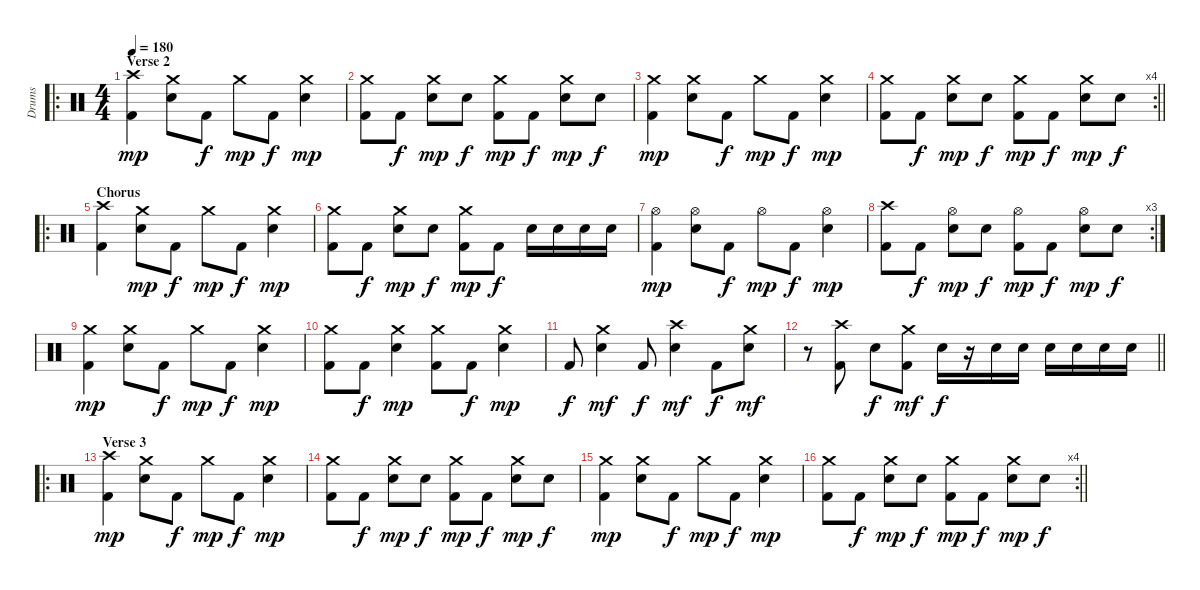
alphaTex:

\track ("Drums" "Drums") {instrument percussion}
\staff {score}
\articulation defaults
\ro
\ts (4 4)
\section ("" "Verse 2")
\tempo 180
\clef neutral
\ks c
("Crash high (hit)" "Kick (hit) 2").4{dy mp} ("Crash medium (hit)" "Snare (hit) 2").8 "Kick (hit) 2".8{dy f} "Crash medium (hit)".8{dy mp} "Kick (hit) 2".8{dy f} ("Crash medium (hit)" "Snare (hit) 2").4{dy mp} |
("Crash medium (hit)" "Kick (hit) 2").8 "Kick (hit) 2".8{dy f} ("Crash medium (hit)" "Snare (hit) 2").8{dy mp} "Snare (hit) 2".8{dy f} ("Crash medium (hit)" "Kick (hit) 2").8{dy mp} "Kick (hit) 2".8{dy f} ("Crash medium (hit)" "Snare (hit) 2").8{dy mp} "Snare (hit) 2".8{dy f} |
("Crash medium (hit)" "Kick (hit) 2").4{dy mp} ("Crash medium (hit)" "Snare (hit) 2").8 "Kick (hit) 2".8{dy f} "Crash medium (hit)".8{dy mp} "Kick (hit) 2".8{dy f} ("Crash medium (hit)" "Snare (hit) 2").4{dy mp} |
\rc 4
\barLineRight lightlight
("Crash medium (hit)" "Kick (hit) 2").8 "Kick (hit) 2".8{dy f} ("Crash medium (hit)" "Snare (hit) 2").8{dy mp} "Snare (hit) 2".8{dy f} ("Crash medium (hit)" "Kick (hit) 2").8{dy mp} "Kick (hit) 2".8{dy f} ("Crash medium (hit)" "Snare (hit) 2").8{dy mp} "Snare (hit) 2".8{dy f} |
\ro
\section ("" "Chorus")
("Crash high (hit)" "Kick (hit) 2").4 ("Crash medium (hit)" "Snare (hit) 2").8{dy mp} "Kick (hit) 2".8{dy f} "Crash medium (hit)".8{dy mp} "Kick (hit) 2".8{dy f} ("Crash medium (hit)" "Snare (hit) 2").4{dy mp} |
("Crash medium (hit)" "Kick (hit) 2").8 "Kick (hit) 2".8{dy f} ("Crash medium (hit)" "Snare (hit) 2").8{dy mp} "Snare (hit) 2".8{dy f} ("Crash medium (hit)" "Kick (hit) 2").8{dy mp} "Kick (hit) 2".8{dy f} "Snare (hit) 2".16 "Snare (hit) 2".16 "Snare (hit) 2".16 "Snare (hit) 2".16 |
("Hi-Hat (open)" "Kick (hit) 2").4{dy mp} ("Hi-Hat (open)" "Snare (hit) 2").8 "Kick (hit) 2".8{dy f} "Hi-Hat (open)".8{dy mp} "Kick (hit) 2".8{dy f} ("Hi-Hat (open)" "Snare (hit) 2").4{dy mp} |
\rc 3
("Crash high (hit)" "Kick (hit) 2").8 "Kick (hit) 2".8{dy f} ("Hi-Hat (open)" "Snare (hit) 2").8{dy mp} "Snare (hit) 2".8{dy f} ("Hi-Hat (open)" "Kick (hit) 2").8{dy mp} "Kick (hit) 2".8{dy f} ("Hi-Hat (open)" "Snare (hit) 2").8{dy mp} "Snare (hit) 2".8{dy f} |
("Crash medium (hit)" "Kick (hit) 2").4{dy mp} ("Crash medium (hit)" "Snare (hit) 2").8 "Kick (hit) 2".8{dy f} "Crash medium (hit)".8{dy mp} "Kick (hit) 2".8{dy f} ("Crash medium (hit)" "Snare (hit) 2").4{dy mp} |
("Crash medium (hit)" "Kick (hit) 2").8 "Kick (hit) 2".8{dy f} ("Crash medium (hit)" "Snare (hit) 2").4{dy mp} ("Crash medium (hit)" "Kick (hit) 2").8 "Kick (hit) 2".8{dy f} ("Crash medium (hit)" "Snare (hit) 2").4{dy mp} |
"Kick (hit) 2".8{dy f} ("Crash medium (hit)" "Snare (hit) 2").4{dy mf} "Kick (hit) 2".8{dy f} ("Crash high (hit)" "Snare (hit) 2").4{dy mf} "Kick (hit) 2".8{dy f} ("Crash medium (hit)" "Snare (hit) 2").8{dy mf} |
\barLineRight lightlight
r.8 ("Crash high (hit)" "Kick (hit) 2").8 "Snare (hit) 2".8{dy f} ("Crash medium (hit)" "Kick (hit) 2").8{dy mf} "Snare (hit) 2".16{dy f} r.16 "Snare (hit) 2".16 "Snare (hit) 2".16 "Snare (hit) 2".16 "Snare (hit) 2".16 "Snare (hit) 2".16 "Snare (hit) 2".16 |
\ro
\section ("" "Verse 3")
("Crash high (hit)" "Kick (hit) 2").4{dy mp} ("Crash medium (hit)" "Snare (hit) 2").8 "Kick (hit) 2".8{dy f} "Crash medium (hit)".8{dy mp} "Kick (hit) 2".8{dy f} ("Crash medium (hit)" "Snare (hit) 2").4{dy mp} |
("Crash medium (hit)" "Kick (hit) 2").8 "Kick (hit) 2".8{dy f} ("Crash medium (hit)" "Snare (hit) 2").8{dy mp} "Snare (hit) 2".8{dy f} ("Crash medium (hit)" "Kick (hit) 2").8{dy mp} "Kick (hit) 2".8{dy f} ("Crash medium (hit)" "Snare (hit) 2").8{dy mp} "Snare (hit) 2".8{dy f} |
("Crash medium (hit)" "Kick (hit) 2").4{dy mp} ("Crash medium (hit)" "Snare (hit) 2").8 "Kick (hit) 2".8{dy f} "Crash medium (hit)".8{dy mp} "Kick (hit) 2".8{dy f} ("Crash medium (hit)" "Snare (hit) 2").4{dy mp} |
\rc 4
\barLineRight lightlight
("Crash medium (hit)" "Kick (hit) 2").8 "Kick (hit) 2".8{dy f} ("Crash medium (hit)" "Snare (hit) 2").8{dy mp} "Snare (hit) 2".8{dy f} ("Crash medium (hit)" "Kick (hit) 2").8{dy mp} "Kick (hit) 2".8{dy f} ("Crash medium (hit)" "Snare (hit) 2").8{dy mp} "Snare (hit) 2".8{dy f}
